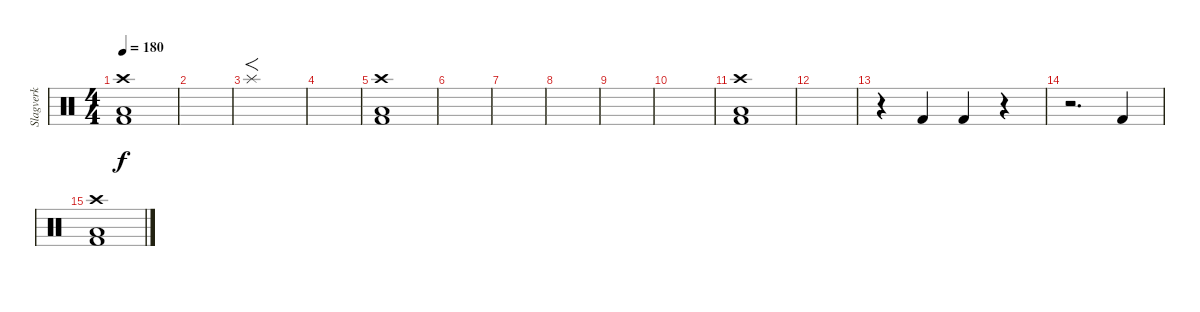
\track ("Slagverk" "Slagverk") {instrument percussion}
\staff {score}
\articulation defaults
\ts (4 4)
\tempo 180
\clef neutral
\ks c
("Kick (hit) 2" "Low Floor Tom (hit)" "Crash high (hit)").1{dy f} |
|
"Splash (hit)".1{f} |
|
("Kick (hit) 2" "Low Floor Tom (hit)" "Crash high (hit)").1 |
|
|
|
|
|
("Kick (hit) 2" "Low Floor Tom (hit)" "Crash high (hit)").1 |
|
r.4 "Kick (hit) 2".4 "Kick (hit) 2".4 r.4 |
r.2{d} "Kick (hit) 2".4 |
("Kick (hit) 2" "Low Floor Tom (hit)" "Crash high (hit)").1
